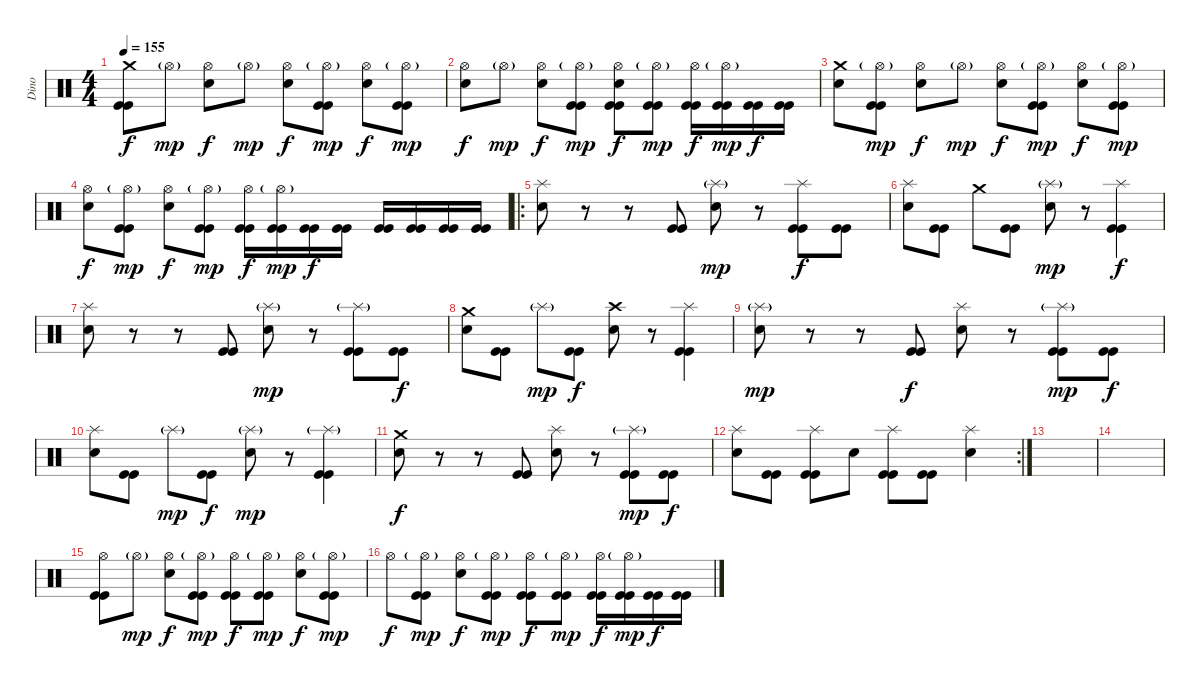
\track ("Dino" "Dino") {instrument percussion}
\staff {score}
\articulation defaults
\ts (4 4)
\tempo 155
\clef neutral
\ks c
("Crash medium (hit)" "Kick (hit)" "Kick (hit)").8{dy f} "Hi-Hat (open)"{g}.8{dy mp} ("Hi-Hat (open)" "Electric Snare (hit)").8{dy f} "Hi-Hat (open)"{g}.8{dy mp} ("Hi-Hat (open)" "Electric Snare (hit)").8{dy f} ("Hi-Hat (open)"{g} "Kick (hit)" "Kick (hit)").8{dy mp} ("Hi-Hat (open)" "Electric Snare (hit)").8{dy f} ("Hi-Hat (open)"{g} "Kick (hit)" "Kick (hit)").8{dy mp} |
("Hi-Hat (open)" "Electric Snare (hit)").8{dy f} "Hi-Hat (open)"{g}.8{dy mp} ("Hi-Hat (open)" "Electric Snare (hit)").8{dy f} ("Hi-Hat (open)"{g} "Kick (hit)" "Kick (hit)").8{dy mp} ("Hi-Hat (open)" "Electric Snare (hit)" "Kick (hit)" "Kick (hit)").8{dy f} ("Hi-Hat (open)"{g} "Kick (hit)" "Kick (hit)").8{dy mp} ("Hi-Hat (open)" "Kick (hit)" "Kick (hit)").16{dy f} ("Hi-Hat (open)"{g} "Kick (hit)" "Kick (hit)").16{dy mp} ("Kick (hit)" "Kick (hit)").16{dy f} ("Kick (hit)" "Kick (hit)").16 |
("Crash medium (hit)" "Electric Snare (hit)").8 ("Hi-Hat (open)"{g} "Kick (hit)" "Kick (hit)").8{dy mp} ("Hi-Hat (open)" "Electric Snare (hit)").8{dy f} "Hi-Hat (open)"{g}.8{dy mp} ("Hi-Hat (open)" "Electric Snare (hit)").8{dy f} ("Hi-Hat (open)"{g} "Kick (hit)" "Kick (hit)").8{dy mp} ("Hi-Hat (open)" "Electric Snare (hit)").8{dy f} ("Hi-Hat (open)"{g} "Kick (hit)" "Kick (hit)").8{dy mp} |
("Hi-Hat (open)" "Electric Snare (hit)").8{dy f} ("Hi-Hat (open)"{g} "Kick (hit)" "Kick (hit)").8{dy mp} ("Hi-Hat (open)" "Electric Snare (hit)").8{dy f} ("Hi-Hat (open)"{g} "Kick (hit)" "Kick (hit)").8{dy mp} ("Hi-Hat (open)" "Kick (hit)" "Kick (hit)").16{dy f} ("Hi-Hat (open)"{g} "Kick (hit)" "Kick (hit)").16{dy mp} ("Kick (hit)" "Kick (hit)").16{dy f} ("Kick (hit)" "Kick (hit)").16 ("Kick (hit)" "Kick (hit)").16 ("Kick (hit)" "Kick (hit)").16 ("Kick (hit)" "Kick (hit)").16 ("Kick (hit)" "Kick (hit)").16 |
\ro
("Splash (hit)" "Electric Snare (hit)").8 r.8 r.8 ("Kick (hit)" "Kick (hit)").8 ("Splash (hit)"{g} "Electric Snare (hit)").8{dy mp} r.8 ("Splash (hit)" "Kick (hit)" "Kick (hit)").8{dy f} ("Kick (hit)" "Kick (hit)").8 |
("Splash (hit)" "Electric Snare (hit)").8 ("Kick (hit)" "Kick (hit)").8 "Crash medium (hit)".8 ("Kick (hit)" "Kick (hit)").8 ("Splash (hit)"{g} "Electric Snare (hit)").8{dy mp} r.8 ("Splash (hit)" "Kick (hit)" "Kick (hit)").4{dy f} |
("Splash (hit)" "Electric Snare (hit)").8 r.8 r.8 ("Kick (hit)" "Kick (hit)").8 ("Splash (hit)"{g} "Electric Snare (hit)").8{dy mp} r.8 ("Splash (hit)"{g} "Kick (hit)" "Kick (hit)").8 ("Kick (hit)" "Kick (hit)").8{dy f} |
("Crash medium (hit)" "Electric Snare (hit)").8 ("Kick (hit)" "Kick (hit)").8 "Splash (hit)"{g}.8{dy mp} ("Kick (hit)" "Kick (hit)").8{dy f} ("Crash high (hit)" "Electric Snare (hit)").8 r.8 ("Splash (hit)" "Kick (hit)" "Kick (hit)").4 |
("Splash (hit)"{g} "Electric Snare (hit)").8{dy mp} r.8 r.8 ("Kick (hit)" "Kick (hit)").8{dy f} ("Splash (hit)" "Electric Snare (hit)").8 r.8 ("Splash (hit)"{g} "Kick (hit)" "Kick (hit)").8{dy mp} ("Kick (hit)" "Kick (hit)").8{dy f} |
("Splash (hit)" "Electric Snare (hit)").8 ("Kick (hit)" "Kick (hit)").8 "Splash (hit)"{g}.8{dy mp} ("Kick (hit)" "Kick (hit)").8{dy f} ("Splash (hit)"{g} "Electric Snare (hit)").8{dy mp} r.8 ("Splash (hit)"{g} "Kick (hit)" "Kick (hit)").4 |
("Crash medium (hit)" "Electric Snare (hit)").8{dy f} r.8 r.8 ("Kick (hit)" "Kick (hit)").8 ("Splash (hit)" "Electric Snare (hit)").8 r.8 ("Splash (hit)"{g} "Kick (hit)" "Kick (hit)").8{dy mp} ("Kick (hit)" "Kick (hit)").8{dy f} |
\rc 2
("Splash (hit)" "Electric Snare (hit)").8 ("Kick (hit)" "Kick (hit)").8 ("Splash (hit)" "Kick (hit)" "Kick (hit)").8 "Electric Snare (hit)".8 ("Splash (hit)" "Kick (hit)" "Kick (hit)").8 ("Kick (hit)" "Kick (hit)").8 ("Splash (hit)" "Electric Snare (hit)").4 |
|
|
("Hi-Hat (open)" "Kick (hit)" "Kick (hit)").8 "Hi-Hat (open)"{g}.8{dy mp} ("Hi-Hat (open)" "Electric Snare (hit)").8{dy f} ("Hi-Hat (open)"{g} "Kick (hit)" "Kick (hit)").8{dy mp} ("Hi-Hat (open)" "Kick (hit)" "Kick (hit)").8{dy f} ("Hi-Hat (open)"{g} "Kick (hit)" "Kick (hit)").8{dy mp} ("Hi-Hat (open)" "Electric Snare (hit)").8{dy f} ("Hi-Hat (open)"{g} "Kick (hit)" "Kick (hit)").8{dy mp} |
"Hi-Hat (open)".8{dy f} ("Hi-Hat (open)"{g} "Kick (hit)" "Kick (hit)").8{dy mp} ("Hi-Hat (open)" "Electric Snare (hit)").8{dy f} ("Hi-Hat (open)"{g} "Kick (hit)" "Kick (hit)").8{dy mp} ("Hi-Hat (open)" "Kick (hit)" "Kick (hit)").8{dy f} ("Hi-Hat (open)"{g} "Kick (hit)" "Kick (hit)").8{dy mp} ("Hi-Hat (open)" "Kick (hit)" "Kick (hit)").16{dy f} ("Hi-Hat (open)"{g} "Kick (hit)" "Kick (hit)").16{dy mp} ("Kick (hit)" "Kick (hit)").16{dy f} ("Kick (hit)" "Kick (hit)").16
